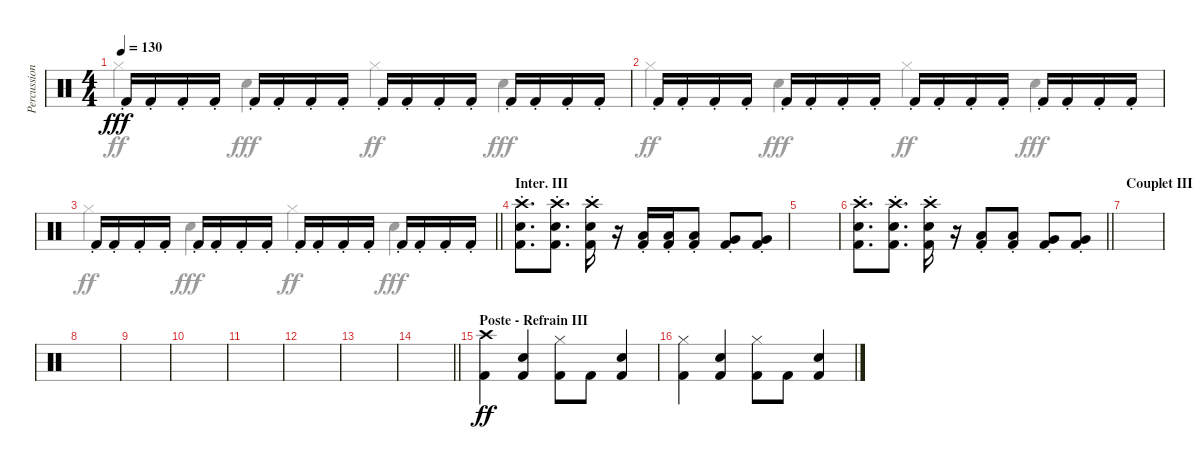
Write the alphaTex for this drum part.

\track ("Percussions" "Percussion") {instrument percussion}
\staff {score}
\articulation defaults
\voice
\ts (4 4)
\tempo 130
\clef neutral
\ks c "Kick (hit) 2"{st}.16{dy fff} "Kick (hit) 2"{st}.16 "Kick (hit) 2"{st}.16 "Kick (hit) 2"{st}.16 "Kick (hit) 2"{st}.16 "Kick (hit) 2"{st}.16 "Kick (hit) 2"{st}.16 "Kick (hit) 2"{st}.16 "Kick (hit) 2"{st}.16 "Kick (hit) 2"{st}.16 "Kick (hit) 2"{st}.16 "Kick (hit) 2"{st}.16 "Kick (hit) 2"{st}.16 "Kick (hit) 2"{st}.16 "Kick (hit) 2"{st}.16 "Kick (hit) 2"{st}.16
|
"Kick (hit) 2"{st}.16 "Kick (hit) 2"{st}.16 "Kick (hit) 2"{st}.16 "Kick (hit) 2"{st}.16 "Kick (hit) 2"{st}.16 "Kick (hit) 2"{st}.16 "Kick (hit) 2"{st}.16 "Kick (hit) 2"{st}.16 "Kick (hit) 2"{st}.16 "Kick (hit) 2"{st}.16 "Kick (hit) 2"{st}.16 "Kick (hit) 2"{st}.16 "Kick (hit) 2"{st}.16 "Kick (hit) 2"{st}.16 "Kick (hit) 2"{st}.16 "Kick (hit) 2"{st}.16 |
\barLineRight lightlight "Kick (hit) 2"{st}.16 "Kick (hit) 2"{st}.16 "Kick (hit) 2"{st}.16 "Kick (hit) 2"{st}.16 "Kick (hit) 2"{st}.16 "Kick (hit) 2"{st}.16 "Kick (hit) 2"{st}.16 "Kick (hit) 2"{st}.16 "Kick (hit) 2"{st}.16 "Kick (hit) 2"{st}.16 "Kick (hit) 2"{st}.16 "Kick (hit) 2"{st}.16 "Kick (hit) 2"{st}.16 "Kick (hit) 2"{st}.16 "Kick (hit) 2"{st}.16 "Kick (hit) 2"{st}.16
|
\section ("" "Inter. III")
("Electric Snare (hit)" "Kick (hit) 2"{st} "Crash high (hit)").8{d} ("Electric Snare (hit)" "Crash high (hit)" "Kick (hit) 2"{st}).8{d} ("Electric Snare (hit)" "Crash high (hit)" "Kick (hit) 2"{st}).16 r.16 ("Kick (hit) 2"{st} "Low Tom (hit)").16 ("Kick (hit) 2"{st} "Low Tom (hit)").16 ("Kick (hit) 2"{st} "Low Tom (hit)").8 ("Kick (hit) 2"{st} "Very Low Tom (hit)").8 ("Kick (hit) 2"{st} "Very Low Tom (hit)").8 |
|
\barLineRight lightlight
("Electric Snare (hit)" "Kick (hit) 2"{st} "Crash high (hit)").8{d} ("Electric Snare (hit)" "Crash high (hit)" "Kick (hit) 2"{st}).8{d} ("Electric Snare (hit)" "Crash high (hit)" "Kick (hit) 2"{st}).16 r.16 ("Kick (hit) 2"{st} "Low Tom (hit)").8 ("Kick (hit) 2"{st} "Low Tom (hit)").8 ("Kick (hit) 2"{st} "Very Low Tom (hit)").8 ("Kick (hit) 2"{st} "Very Low Tom (hit)").8 |
\section ("" "Couplet III")
|
|
|
|
|
|
|
\barLineRight lightlight
|
\section ("" "Poste - Refrain III")
("Kick (hit) 2" "Crash high (hit)").4{dy ff} ("Kick (hit) 2" "Electric Snare (hit)").4 ("Kick (hit) 2" "Hi-Hat (closed)").8 "Kick (hit) 2".8 ("Kick (hit) 2" "Electric Snare (hit)").4 |
("Kick (hit) 2" "Hi-Hat (closed)").4 ("Kick (hit) 2" "Electric Snare (hit)").4 ("Kick (hit) 2" "Hi-Hat (closed)").8 "Kick (hit) 2".8 ("Kick (hit) 2" "Electric Snare (hit)").4
\voice
\clef neutral
\ottava regular
\simile none
\ks c "Hi-Hat (closed)".4{dy ff} "Electric Snare (hit)".4{dy fff} "Hi-Hat (closed)".4{dy ff} "Electric Snare (hit)".4{dy fff}
|
"Hi-Hat (closed)".4{dy ff} "Electric Snare (hit)".4{dy fff} "Hi-Hat (closed)".4{dy ff} "Electric Snare (hit)".4{dy fff} |
\barLineRight lightlight "Hi-Hat (closed)".4{dy ff} "Electric Snare (hit)".4{dy fff} "Hi-Hat (closed)".4{dy ff} "Electric Snare (hit)".4{dy fff}
|
|
|
\barLineRight lightlight
|
|
|
|
|
|
|
|
\barLineRight lightlight
|
|
